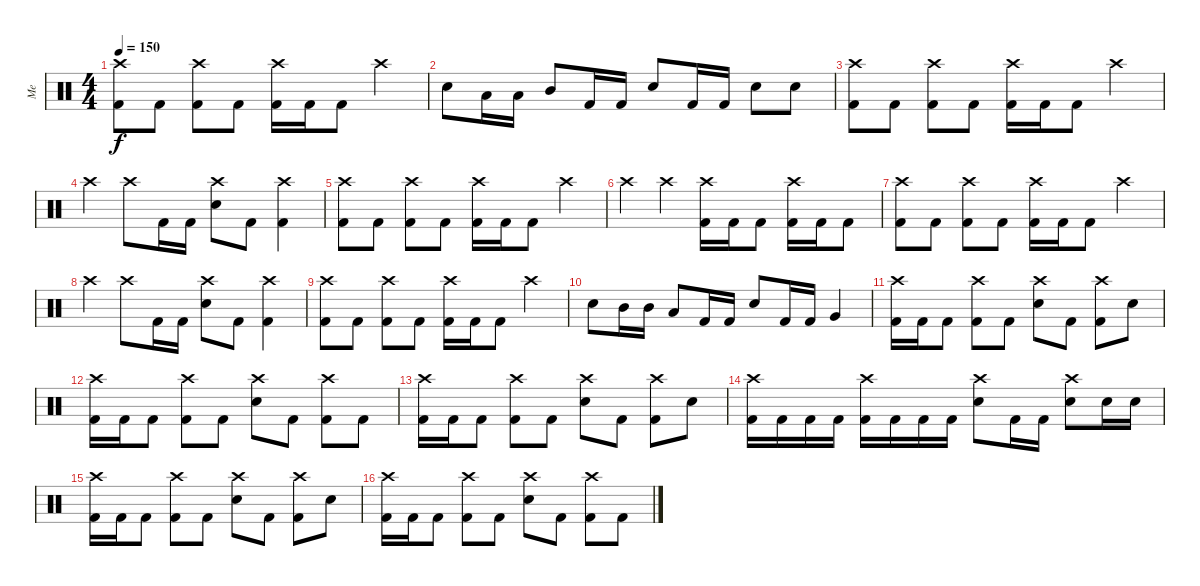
\track ("Me" "Me") {instrument percussion}
\staff {score}
\articulation defaults
\ts (4 4)
\tempo 150
\clef neutral
\ks c
("Crash high (hit)" "Kick (hit) 2").8{dy f} "Kick (hit) 2".8 ("Crash high (hit)" "Kick (hit) 2").8 "Kick (hit) 2".8 ("Crash high (hit)" "Kick (hit) 2").16 "Kick (hit) 2".16 "Kick (hit) 2".8 "Crash high (hit)".4 |
"Snare (hit) 2".8 "Low Tom (hit)".16 "Low Tom (hit)".16 "Mid Tom (hit)".8 "Kick (hit) 2".16 "Kick (hit) 2".16 "Snare (hit) 2".8 "Kick (hit) 2".16 "Kick (hit) 2".16 "Snare (hit) 2".8 "Snare (hit) 2".8 |
("Crash high (hit)" "Kick (hit) 2").8 "Kick (hit) 2".8 ("Crash high (hit)" "Kick (hit) 2").8 "Kick (hit) 2".8 ("Crash high (hit)" "Kick (hit) 2").16 "Kick (hit) 2".16 "Kick (hit) 2".8 "Crash high (hit)".4 |
"Crash high (hit)".4 "Crash high (hit)".8 "Kick (hit) 2".16 "Kick (hit) 2".16 ("Crash high (hit)" "Snare (hit) 2").8 "Kick (hit) 2".8 ("Crash high (hit)" "Kick (hit) 2").4 |
("Crash high (hit)" "Kick (hit) 2").8 "Kick (hit) 2".8 ("Crash high (hit)" "Kick (hit) 2").8 "Kick (hit) 2".8 ("Crash high (hit)" "Kick (hit) 2").16 "Kick (hit) 2".16 "Kick (hit) 2".8 "Crash high (hit)".4 |
"Crash high (hit)".4 "Crash high (hit)".4 ("Crash high (hit)" "Kick (hit) 2").16 "Kick (hit) 2".16 "Kick (hit) 2".8 ("Crash high (hit)" "Kick (hit) 2").16 "Kick (hit) 2".16 "Kick (hit) 2".8 |
("Crash high (hit)" "Kick (hit) 2").8 "Kick (hit) 2".8 ("Crash high (hit)" "Kick (hit) 2").8 "Kick (hit) 2".8 ("Crash high (hit)" "Kick (hit) 2").16 "Kick (hit) 2".16 "Kick (hit) 2".8 "Crash high (hit)".4 |
"Crash high (hit)".4 "Crash high (hit)".8 "Kick (hit) 2".16 "Kick (hit) 2".16 ("Crash high (hit)" "Snare (hit) 2").8 "Kick (hit) 2".8 ("Crash high (hit)" "Kick (hit) 2").4 |
("Crash high (hit)" "Kick (hit) 2").8 "Kick (hit) 2".8 ("Crash high (hit)" "Kick (hit) 2").8 "Kick (hit) 2".8 ("Crash high (hit)" "Kick (hit) 2").16 "Kick (hit) 2".16 "Kick (hit) 2".8 "Crash high (hit)".4 |
"Snare (hit) 2".8 "Mid Tom (hit)".16 "Mid Tom (hit)".16 "Low Tom (hit)".8 "Kick (hit) 2".16 "Kick (hit) 2".16 "Snare (hit) 2".8 "Kick (hit) 2".16 "Kick (hit) 2".16 "Very Low Tom (hit)".4 |
("Crash high (hit)" "Kick (hit) 2").16 "Kick (hit) 2".16 "Kick (hit) 2".8 ("Crash high (hit)" "Kick (hit) 2").8 "Kick (hit) 2".8 ("Crash high (hit)" "Snare (hit) 2").8 "Kick (hit) 2".8 ("Crash high (hit)" "Kick (hit) 2").8 "Snare (hit) 2".8 |
("Crash high (hit)" "Kick (hit) 2").16 "Kick (hit) 2".16 "Kick (hit) 2".8 ("Crash high (hit)" "Kick (hit) 2").8 "Kick (hit) 2".8 ("Crash high (hit)" "Snare (hit) 2").8 "Kick (hit) 2".8 ("Crash high (hit)" "Kick (hit) 2").8 "Kick (hit) 2".8 |
("Crash high (hit)" "Kick (hit) 2").16 "Kick (hit) 2".16 "Kick (hit) 2".8 ("Crash high (hit)" "Kick (hit) 2").8 "Kick (hit) 2".8 ("Crash high (hit)" "Snare (hit) 2").8 "Kick (hit) 2".8 ("Crash high (hit)" "Kick (hit) 2").8 "Snare (hit) 2".8 |
("Crash high (hit)" "Kick (hit) 2").16 "Kick (hit) 2".16 "Kick (hit) 2".16 "Kick (hit) 2".16 ("Crash high (hit)" "Kick (hit) 2").16 "Kick (hit) 2".16 "Kick (hit) 2".16 "Kick (hit) 2".16 ("Crash high (hit)" "Snare (hit) 2").8 "Kick (hit) 2".16 "Kick (hit) 2".16 ("Crash high (hit)" "Snare (hit) 2").8 "Snare (hit) 2".16 "Snare (hit) 2".16 |
("Crash high (hit)" "Kick (hit) 2").16 "Kick (hit) 2".16 "Kick (hit) 2".8 ("Crash high (hit)" "Kick (hit) 2").8 "Kick (hit) 2".8 ("Crash high (hit)" "Snare (hit) 2").8 "Kick (hit) 2".8 ("Crash high (hit)" "Kick (hit) 2").8 "Snare (hit) 2".8 |
("Crash high (hit)" "Kick (hit) 2").16 "Kick (hit) 2".16 "Kick (hit) 2".8 ("Crash high (hit)" "Kick (hit) 2").8 "Kick (hit) 2".8 ("Crash high (hit)" "Snare (hit) 2").8 "Kick (hit) 2".8 ("Crash high (hit)" "Kick (hit) 2").8 "Kick (hit) 2".8
